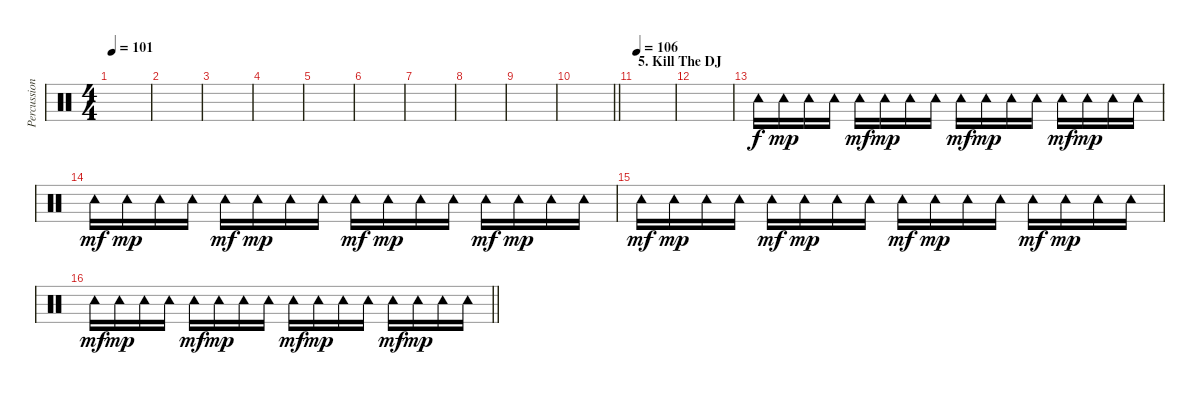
\track ("Percussion" "Percussion") {instrument percussion}
\staff {score}
\articulation defaults
\ts (4 4)
\tempo 101
\clef neutral
\ks c
|
|
|
|
|
|
|
|
|
\barLineRight lightlight
|
\section ("" "5. Kill The DJ")
\tempo 106
|
|
"Tambourine (hit)".16 "Tambourine (hit)".16{dy mp} "Tambourine (hit)".16 "Tambourine (hit)".16 "Tambourine (hit)".16{dy mf} "Tambourine (hit)".16{dy mp} "Tambourine (hit)".16 "Tambourine (hit)".16 "Tambourine (hit)".16{dy mf} "Tambourine (hit)".16{dy mp} "Tambourine (hit)".16 "Tambourine (hit)".16 "Tambourine (hit)".16{dy mf} "Tambourine (hit)".16{dy mp} "Tambourine (hit)".16 "Tambourine (hit)".16 |
"Tambourine (hit)".16{dy mf} "Tambourine (hit)".16{dy mp} "Tambourine (hit)".16 "Tambourine (hit)".16 "Tambourine (hit)".16{dy mf} "Tambourine (hit)".16{dy mp} "Tambourine (hit)".16 "Tambourine (hit)".16 "Tambourine (hit)".16{dy mf} "Tambourine (hit)".16{dy mp} "Tambourine (hit)".16 "Tambourine (hit)".16 "Tambourine (hit)".16{dy mf} "Tambourine (hit)".16{dy mp} "Tambourine (hit)".16 "Tambourine (hit)".16 |
"Tambourine (hit)".16{dy mf} "Tambourine (hit)".16{dy mp} "Tambourine (hit)".16 "Tambourine (hit)".16 "Tambourine (hit)".16{dy mf} "Tambourine (hit)".16{dy mp} "Tambourine (hit)".16 "Tambourine (hit)".16 "Tambourine (hit)".16{dy mf} "Tambourine (hit)".16{dy mp} "Tambourine (hit)".16 "Tambourine (hit)".16 "Tambourine (hit)".16{dy mf} "Tambourine (hit)".16{dy mp} "Tambourine (hit)".16 "Tambourine (hit)".16 |
\barLineRight lightlight "Tambourine (hit)".16{dy mf} "Tambourine (hit)".16{dy mp} "Tambourine (hit)".16 "Tambourine (hit)".16 "Tambourine (hit)".16{dy mf} "Tambourine (hit)".16{dy mp} "Tambourine (hit)".16 "Tambourine (hit)".16 "Tambourine (hit)".16{dy mf} "Tambourine (hit)".16{dy mp} "Tambourine (hit)".16 "Tambourine (hit)".16 "Tambourine (hit)".16{dy mf} "Tambourine (hit)".16{dy mp} "Tambourine (hit)".16 "Tambourine (hit)".16
